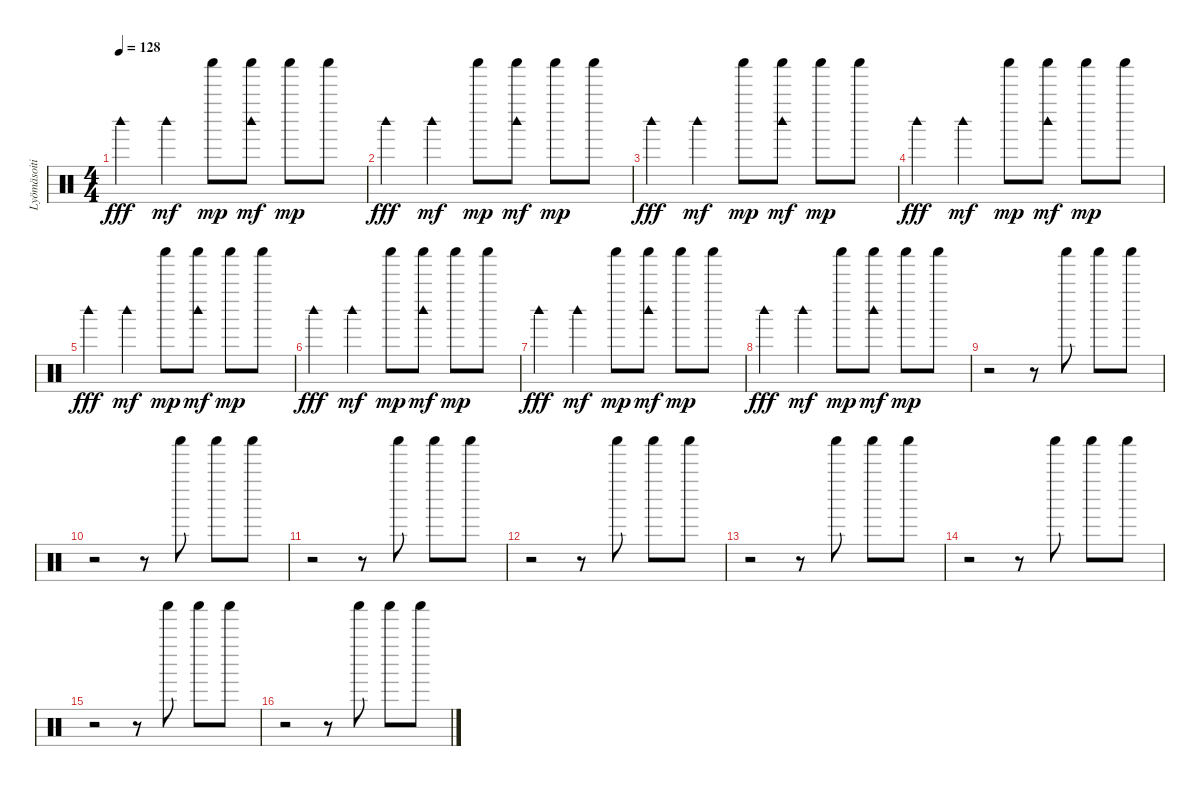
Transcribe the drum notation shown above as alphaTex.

\track ("Lyömäsoitin" "Lyömäsoiti") {instrument percussion}
\staff {score}
\articulation defaults
\ts (4 4)
\tempo 128
\clef neutral
\ks c "Woodblock high (hit)".4{dy fff} "Woodblock high (hit)".4{dy mf} "Shaker (hit)".8{dy mp}
("Shaker (hit)" "Woodblock high (hit)").8{dy mf} "Shaker (hit)".8{dy mp} "Shaker (hit)".8 |
"Woodblock high (hit)".4{dy fff} "Woodblock high (hit)".4{dy mf} "Shaker (hit)".8{dy mp} ("Shaker (hit)" "Woodblock high (hit)").8{dy mf} "Shaker (hit)".8{dy mp} "Shaker (hit)".8 |
"Woodblock high (hit)".4{dy fff} "Woodblock high (hit)".4{dy mf} "Shaker (hit)".8{dy mp} ("Shaker (hit)" "Woodblock high (hit)").8{dy mf} "Shaker (hit)".8{dy mp} "Shaker (hit)".8 |
"Woodblock high (hit)".4{dy fff} "Woodblock high (hit)".4{dy mf} "Shaker (hit)".8{dy mp} ("Shaker (hit)" "Woodblock high (hit)").8{dy mf} "Shaker (hit)".8{dy mp} "Shaker (hit)".8 |
"Woodblock high (hit)".4{dy fff} "Woodblock high (hit)".4{dy mf} "Shaker (hit)".8{dy mp} ("Shaker (hit)" "Woodblock high (hit)").8{dy mf} "Shaker (hit)".8{dy mp} "Shaker (hit)".8 |
"Woodblock high (hit)".4{dy fff} "Woodblock high (hit)".4{dy mf} "Shaker (hit)".8{dy mp} ("Shaker (hit)" "Woodblock high (hit)").8{dy mf} "Shaker (hit)".8{dy mp} "Shaker (hit)".8 |
"Woodblock high (hit)".4{dy fff} "Woodblock high (hit)".4{dy mf} "Shaker (hit)".8{dy mp} ("Shaker (hit)" "Woodblock high (hit)").8{dy mf} "Shaker (hit)".8{dy mp} "Shaker (hit)".8 |
"Woodblock high (hit)".4{dy fff} "Woodblock high (hit)".4{dy mf} "Shaker (hit)".8{dy mp} ("Shaker (hit)" "Woodblock high (hit)").8{dy mf} "Shaker (hit)".8{dy mp} "Shaker (hit)".8 |
r.2 r.8 "Shaker (hit)".8 "Shaker (hit)".8 "Shaker (hit)".8 |
r.2 r.8 "Shaker (hit)".8 "Shaker (hit)".8 "Shaker (hit)".8 |
r.2 r.8 "Shaker (hit)".8 "Shaker (hit)".8 "Shaker (hit)".8 |
r.2 r.8 "Shaker (hit)".8 "Shaker (hit)".8 "Shaker (hit)".8 |
r.2 r.8 "Shaker (hit)".8 "Shaker (hit)".8 "Shaker (hit)".8 |
r.2 r.8 "Shaker (hit)".8 "Shaker (hit)".8 "Shaker (hit)".8 |
r.2 r.8 "Shaker (hit)".8 "Shaker (hit)".8 "Shaker (hit)".8 |
r.2 r.8 "Shaker (hit)".8 "Shaker (hit)".8 "Shaker (hit)".8
